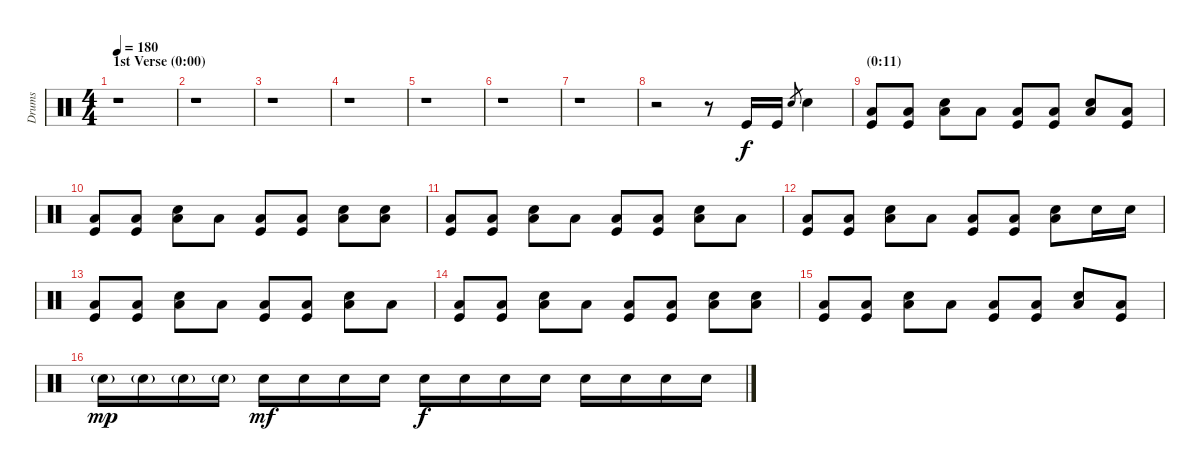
\track ("Drums" "Drums") {instrument percussion}
\staff {score}
\articulation defaults
\ts (4 4)
\section ("" "1st Verse (0:00)")
\tempo 180
\clef neutral
\ks c
r.1{dy f} |
r.1 |
r.1 |
r.1 |
r.1 |
r.1 |
r.1 |
r.2 r.8 "Kick (hit)".16 "Kick (hit)".16 "Snare (hit) 2".8{gr} "Snare (hit) 2".4 |
\section ("" "(0:11)")
("Low Floor Tom (hit)" "Kick (hit)").8 ("Low Floor Tom (hit)" "Kick (hit)").8 ("Snare (hit) 2" "Low Floor Tom (hit)").8 "Low Floor Tom (hit)".8 ("Low Floor Tom (hit)" "Kick (hit)").8 ("Low Floor Tom (hit)" "Kick (hit)").8 ("Snare (hit) 2" "Low Floor Tom (hit)").8 ("Low Floor Tom (hit)" "Kick (hit)").8 |
("Low Floor Tom (hit)" "Kick (hit)").8 ("Low Floor Tom (hit)" "Kick (hit)").8 ("Snare (hit) 2" "Low Floor Tom (hit)").8 "Low Floor Tom (hit)".8 ("Low Floor Tom (hit)" "Kick (hit)").8 ("Low Floor Tom (hit)" "Kick (hit)").8 ("Snare (hit) 2" "Low Floor Tom (hit)").8 ("Snare (hit) 2" "Low Floor Tom (hit)").8 |
("Low Floor Tom (hit)" "Kick (hit)").8 ("Low Floor Tom (hit)" "Kick (hit)").8 ("Snare (hit) 2" "Low Floor Tom (hit)").8 "Low Floor Tom (hit)".8 ("Low Floor Tom (hit)" "Kick (hit)").8 ("Low Floor Tom (hit)" "Kick (hit)").8 ("Snare (hit) 2" "Low Floor Tom (hit)").8 "Low Floor Tom (hit)".8 |
("Low Floor Tom (hit)" "Kick (hit)").8 ("Low Floor Tom (hit)" "Kick (hit)").8 ("Snare (hit) 2" "Low Floor Tom (hit)").8 "Low Floor Tom (hit)".8 ("Low Floor Tom (hit)" "Kick (hit)").8 ("Low Floor Tom (hit)" "Kick (hit)").8 ("Snare (hit) 2" "Low Floor Tom (hit)").8 "Snare (hit) 2".16 "Snare (hit) 2".16 |
("Low Floor Tom (hit)" "Kick (hit)").8 ("Low Floor Tom (hit)" "Kick (hit)").8 ("Snare (hit) 2" "Low Floor Tom (hit)").8 "Low Floor Tom (hit)".8 ("Low Floor Tom (hit)" "Kick (hit)").8 ("Low Floor Tom (hit)" "Kick (hit)").8 ("Snare (hit) 2" "Low Floor Tom (hit)").8 "Low Floor Tom (hit)".8 |
("Low Floor Tom (hit)" "Kick (hit)").8 ("Low Floor Tom (hit)" "Kick (hit)").8 ("Snare (hit) 2" "Low Floor Tom (hit)").8 "Low Floor Tom (hit)".8 ("Low Floor Tom (hit)" "Kick (hit)").8 ("Low Floor Tom (hit)" "Kick (hit)").8 ("Snare (hit) 2" "Low Floor Tom (hit)").8 ("Snare (hit) 2" "Low Floor Tom (hit)").8 |
("Low Floor Tom (hit)" "Kick (hit)").8 ("Low Floor Tom (hit)" "Kick (hit)").8 ("Snare (hit) 2" "Low Floor Tom (hit)").8 "Low Floor Tom (hit)".8 ("Low Floor Tom (hit)" "Kick (hit)").8 ("Low Floor Tom (hit)" "Kick (hit)").8 ("Snare (hit) 2" "Low Floor Tom (hit)").8 ("Low Floor Tom (hit)" "Kick (hit)").8 |
"Snare (hit) 2"{g}.16{dy mp} "Snare (hit) 2"{g}.16 "Snare (hit) 2"{g}.16 "Snare (hit) 2"{g}.16 "Snare (hit) 2".16{dy mf} "Snare (hit) 2".16 "Snare (hit) 2".16 "Snare (hit) 2".16 "Snare (hit) 2".16{dy f} "Snare (hit) 2".16 "Snare (hit) 2".16 "Snare (hit) 2".16 "Snare (hit) 2".16 "Snare (hit) 2".16 "Snare (hit) 2".16 "Snare (hit) 2".16
